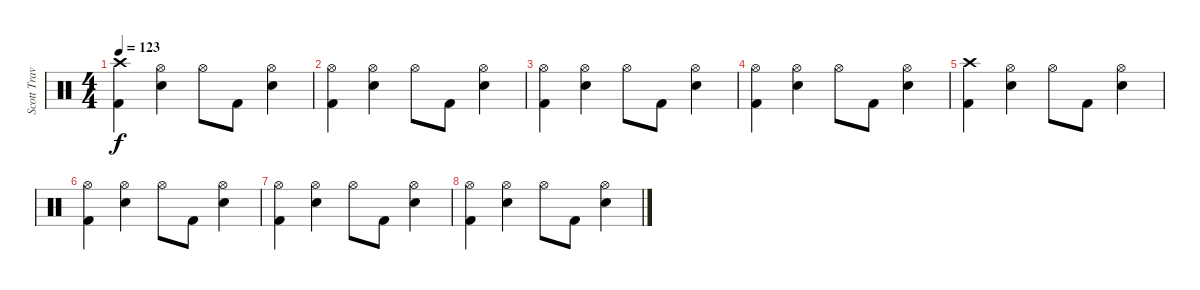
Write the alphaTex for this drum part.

\track ("Scott Travis" "Scott Trav") {instrument percussion}
\staff {score}
\articulation defaults
\ts (4 4)
\tempo 123
\clef neutral
\ks c
("Crash high (hit)" "Kick (hit) 2").4{dy f} ("Hi-Hat (open)" "Snare (hit) 2").4 "Hi-Hat (open)".8 "Kick (hit) 2".8 ("Hi-Hat (open)" "Snare (hit) 2").4 |
("Hi-Hat (open)" "Kick (hit) 2").4 ("Hi-Hat (open)" "Snare (hit) 2").4 "Hi-Hat (open)".8 "Kick (hit) 2".8 ("Hi-Hat (open)" "Snare (hit) 2").4 |
("Hi-Hat (open)" "Kick (hit) 2").4 ("Hi-Hat (open)" "Snare (hit) 2").4 "Hi-Hat (open)".8 "Kick (hit) 2".8 ("Hi-Hat (open)" "Snare (hit) 2").4 |
("Hi-Hat (open)" "Kick (hit) 2").4 ("Hi-Hat (open)" "Snare (hit) 2").4 "Hi-Hat (open)".8 "Kick (hit) 2".8 ("Hi-Hat (open)" "Snare (hit) 2").4 |
("Crash high (hit)" "Kick (hit) 2").4 ("Hi-Hat (open)" "Snare (hit) 2").4 "Hi-Hat (open)".8 "Kick (hit) 2".8 ("Hi-Hat (open)" "Snare (hit) 2").4 |
("Hi-Hat (open)" "Kick (hit) 2").4 ("Hi-Hat (open)" "Snare (hit) 2").4 "Hi-Hat (open)".8 "Kick (hit) 2".8 ("Hi-Hat (open)" "Snare (hit) 2").4 |
("Hi-Hat (open)" "Kick (hit) 2").4 ("Hi-Hat (open)" "Snare (hit) 2").4 "Hi-Hat (open)".8 "Kick (hit) 2".8 ("Hi-Hat (open)" "Snare (hit) 2").4 |
("Hi-Hat (open)" "Kick (hit) 2").4 ("Hi-Hat (open)" "Snare (hit) 2").4 "Hi-Hat (open)".8 "Kick (hit) 2".8 ("Hi-Hat (open)" "Snare (hit) 2").4
